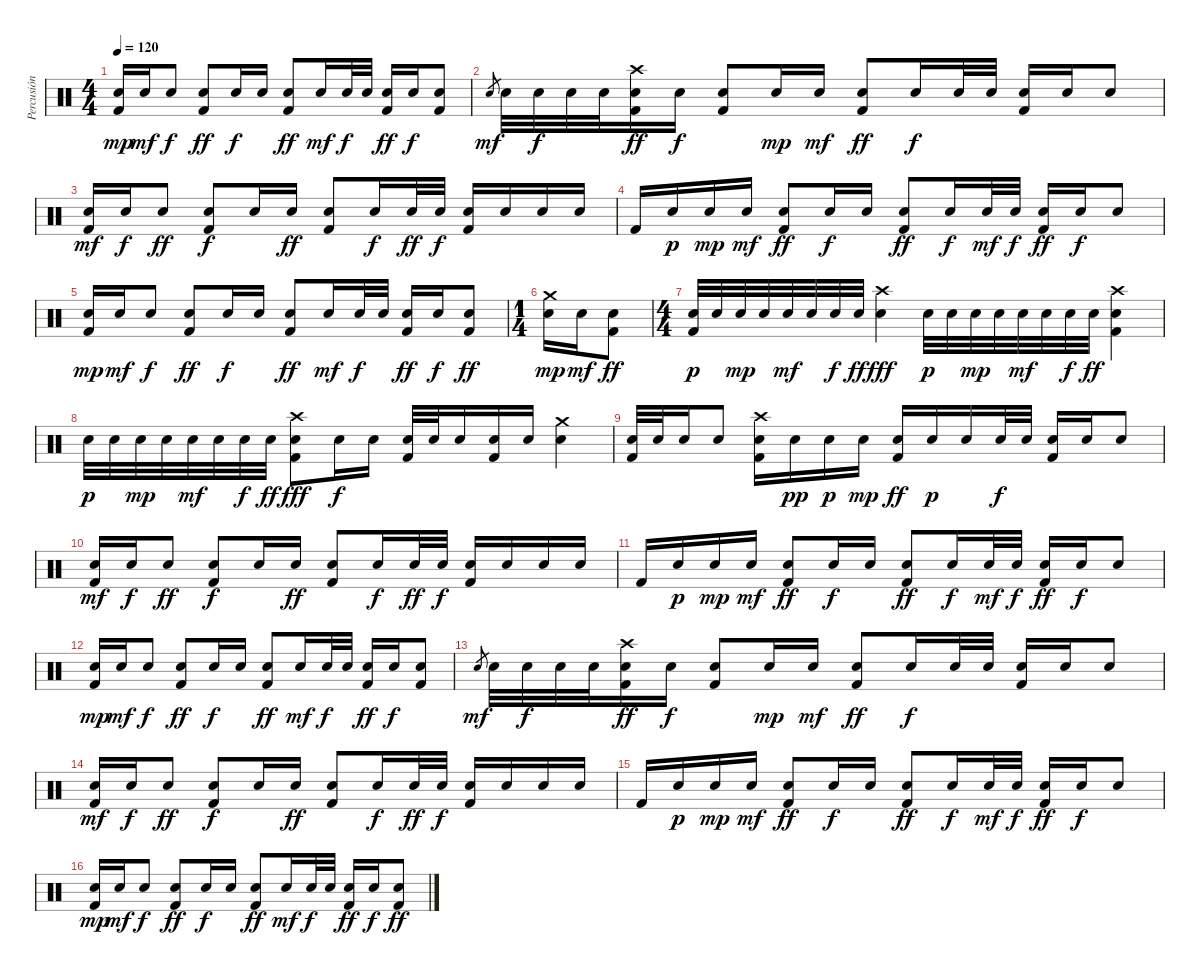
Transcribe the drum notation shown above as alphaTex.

\track ("Percusión" "Percusión") {instrument percussion}
\staff {score}
\articulation defaults
\ts (4 4)
\tempo 120
\clef neutral
\ks c
("Electric Snare (hit)" "Kick (hit) 2").16{dy mp} "Electric Snare (hit)".16{dy mf} "Electric Snare (hit)".8{dy f} ("Electric Snare (hit)" "Kick (hit) 2").8{dy ff} "Electric Snare (hit)".16{dy f} "Electric Snare (hit)".16 ("Electric Snare (hit)" "Kick (hit) 2").8{dy ff} "Electric Snare (hit)".16{dy mf} "Electric Snare (hit)".32{dy f} "Electric Snare (hit)".32 ("Electric Snare (hit)" "Kick (hit) 2").16{dy ff} "Electric Snare (hit)".16{dy f} ("Electric Snare (hit)" "Kick (hit) 2").8 |
"Electric Snare (hit)".8{gr dy mf} "Electric Snare (hit)".32 "Electric Snare (hit)".32{dy f} "Electric Snare (hit)".32 "Electric Snare (hit)".32 ("Crash high (hit)" "Electric Snare (hit)" "Kick (hit) 2").16{dy ff} "Electric Snare (hit)".16{dy f} ("Electric Snare (hit)" "Kick (hit) 2").8 "Electric Snare (hit)".16{dy mp} "Electric Snare (hit)".16{dy mf} ("Electric Snare (hit)" "Kick (hit) 2").8{dy ff} "Electric Snare (hit)".16{dy f} "Electric Snare (hit)".32 "Electric Snare (hit)".32 ("Electric Snare (hit)" "Kick (hit) 2").16 "Electric Snare (hit)".16 "Electric Snare (hit)".8 |
("Electric Snare (hit)" "Kick (hit) 2").16{dy mf} "Electric Snare (hit)".16{dy f} "Electric Snare (hit)".8{dy ff} ("Electric Snare (hit)" "Kick (hit) 2").8{dy f} "Electric Snare (hit)".16 "Electric Snare (hit)".16{dy ff} ("Electric Snare (hit)" "Kick (hit) 2").8 "Electric Snare (hit)".16{dy f} "Electric Snare (hit)".32{dy ff} "Electric Snare (hit)".32{dy f} ("Electric Snare (hit)" "Kick (hit) 2").16 "Electric Snare (hit)".16 "Electric Snare (hit)".16 "Electric Snare (hit)".16 |
"Kick (hit) 2".16 "Electric Snare (hit)".16{dy p} "Electric Snare (hit)".16{dy mp} "Electric Snare (hit)".16{dy mf} ("Electric Snare (hit)" "Kick (hit) 2").8{dy ff} "Electric Snare (hit)".16{dy f} "Electric Snare (hit)".16 ("Electric Snare (hit)" "Kick (hit) 2").8{dy ff} "Electric Snare (hit)".16{dy f} "Electric Snare (hit)".32{dy mf} "Electric Snare (hit)".32{dy f} ("Electric Snare (hit)" "Kick (hit) 2").16{dy ff} "Electric Snare (hit)".16{dy f} "Electric Snare (hit)".8 |
("Electric Snare (hit)" "Kick (hit) 2").16{dy mp} "Electric Snare (hit)".16{dy mf} "Electric Snare (hit)".8{dy f} ("Electric Snare (hit)" "Kick (hit) 2").8{dy ff} "Electric Snare (hit)".16{dy f} "Electric Snare (hit)".16 ("Electric Snare (hit)" "Kick (hit) 2").8{dy ff} "Electric Snare (hit)".16{dy mf} "Electric Snare (hit)".32{dy f} "Electric Snare (hit)".32 ("Electric Snare (hit)" "Kick (hit) 2").16{dy ff} "Electric Snare (hit)".16{dy f} ("Electric Snare (hit)" "Kick (hit) 2").8{dy ff} |
\ts (1 4)
("Crash medium (hit)" "Electric Snare (hit)").16{dy mp} "Electric Snare (hit)".16{dy mf} ("Electric Snare (hit)" "Kick (hit) 2").8{dy ff} |
\ts (4 4)
("Electric Snare (hit)" "Kick (hit) 2").32{dy p volume 8} "Electric Snare (hit)".32 "Electric Snare (hit)".32{dy mp} "Electric Snare (hit)".32 "Electric Snare (hit)".32{dy mf} "Electric Snare (hit)".32 "Electric Snare (hit)".32{dy f} "Electric Snare (hit)".32{dy ff} ("Crash high (hit)" "Electric Snare (hit)").4{dy fff} "Electric Snare (hit)".32{dy p} "Electric Snare (hit)".32 "Electric Snare (hit)".32{dy mp} "Electric Snare (hit)".32 "Electric Snare (hit)".32{dy mf} "Electric Snare (hit)".32 "Electric Snare (hit)".32{dy f} "Electric Snare (hit)".32{dy ff} ("Crash high (hit)" "Electric Snare (hit)" "Kick (hit) 2").4 |
"Electric Snare (hit)".32{dy p} "Electric Snare (hit)".32 "Electric Snare (hit)".32{dy mp} "Electric Snare (hit)".32 "Electric Snare (hit)".32{dy mf} "Electric Snare (hit)".32 "Electric Snare (hit)".32{dy f} "Electric Snare (hit)".32{dy ff} ("Crash high (hit)" "Electric Snare (hit)" "Kick (hit) 2").8{dy fff} "Electric Snare (hit)".16{dy f} "Electric Snare (hit)".16 ("Electric Snare (hit)" "Kick (hit) 2").32 "Electric Snare (hit)".32 "Electric Snare (hit)".16 ("Electric Snare (hit)" "Kick (hit) 2").16 "Electric Snare (hit)".16 ("Crash medium (hit)" "Electric Snare (hit)").4 |
("Electric Snare (hit)" "Kick (hit) 2").32 "Electric Snare (hit)".32 "Electric Snare (hit)".16 "Electric Snare (hit)".8 ("Crash high (hit)" "Electric Snare (hit)" "Kick (hit) 2").16 "Electric Snare (hit)".16{dy pp} "Electric Snare (hit)".16{dy p} "Electric Snare (hit)".16{dy mp} ("Electric Snare (hit)" "Kick (hit) 2").16{dy ff} "Electric Snare (hit)".16{dy p} "Electric Snare (hit)".16 "Electric Snare (hit)".32{dy f} "Electric Snare (hit)".32 ("Electric Snare (hit)" "Kick (hit) 2").16 "Electric Snare (hit)".16 "Electric Snare (hit)".8 |
("Electric Snare (hit)" "Kick (hit) 2").16{dy mf} "Electric Snare (hit)".16{dy f} "Electric Snare (hit)".8{dy ff} ("Electric Snare (hit)" "Kick (hit) 2").8{dy f} "Electric Snare (hit)".16 "Electric Snare (hit)".16{dy ff} ("Electric Snare (hit)" "Kick (hit) 2").8 "Electric Snare (hit)".16{dy f} "Electric Snare (hit)".32{dy ff} "Electric Snare (hit)".32{dy f} ("Electric Snare (hit)" "Kick (hit) 2").16 "Electric Snare (hit)".16 "Electric Snare (hit)".16 "Electric Snare (hit)".16 |
"Kick (hit) 2".16{volume 0} "Electric Snare (hit)".16{dy p} "Electric Snare (hit)".16{dy mp} "Electric Snare (hit)".16{dy mf} ("Electric Snare (hit)" "Kick (hit) 2").8{dy ff} "Electric Snare (hit)".16{dy f} "Electric Snare (hit)".16 ("Electric Snare (hit)" "Kick (hit) 2").8{dy ff} "Electric Snare (hit)".16{dy f} "Electric Snare (hit)".32{dy mf} "Electric Snare (hit)".32{dy f} ("Electric Snare (hit)" "Kick (hit) 2").16{dy ff} "Electric Snare (hit)".16{dy f} "Electric Snare (hit)".8 |
("Electric Snare (hit)" "Kick (hit) 2").16{dy mp} "Electric Snare (hit)".16{dy mf} "Electric Snare (hit)".8{dy f} ("Electric Snare (hit)" "Kick (hit) 2").8{dy ff} "Electric Snare (hit)".16{dy f} "Electric Snare (hit)".16 ("Electric Snare (hit)" "Kick (hit) 2").8{dy ff} "Electric Snare (hit)".16{dy mf} "Electric Snare (hit)".32{dy f} "Electric Snare (hit)".32 ("Electric Snare (hit)" "Kick (hit) 2").16{dy ff} "Electric Snare (hit)".16{dy f} ("Electric Snare (hit)" "Kick (hit) 2").8 |
"Electric Snare (hit)".8{gr dy mf} "Electric Snare (hit)".32 "Electric Snare (hit)".32{dy f} "Electric Snare (hit)".32 "Electric Snare (hit)".32 ("Crash high (hit)" "Electric Snare (hit)" "Kick (hit) 2").16{dy ff} "Electric Snare (hit)".16{dy f} ("Electric Snare (hit)" "Kick (hit) 2").8 "Electric Snare (hit)".16{dy mp} "Electric Snare (hit)".16{dy mf} ("Electric Snare (hit)" "Kick (hit) 2").8{dy ff} "Electric Snare (hit)".16{dy f} "Electric Snare (hit)".32 "Electric Snare (hit)".32 ("Electric Snare (hit)" "Kick (hit) 2").16 "Electric Snare (hit)".16 "Electric Snare (hit)".8 |
("Electric Snare (hit)" "Kick (hit) 2").16{dy mf} "Electric Snare (hit)".16{dy f} "Electric Snare (hit)".8{dy ff} ("Electric Snare (hit)" "Kick (hit) 2").8{dy f} "Electric Snare (hit)".16 "Electric Snare (hit)".16{dy ff} ("Electric Snare (hit)" "Kick (hit) 2").8 "Electric Snare (hit)".16{dy f} "Electric Snare (hit)".32{dy ff} "Electric Snare (hit)".32{dy f} ("Electric Snare (hit)" "Kick (hit) 2").16 "Electric Snare (hit)".16 "Electric Snare (hit)".16 "Electric Snare (hit)".16 |
"Kick (hit) 2".16 "Electric Snare (hit)".16{dy p} "Electric Snare (hit)".16{dy mp} "Electric Snare (hit)".16{dy mf} ("Electric Snare (hit)" "Kick (hit) 2").8{dy ff} "Electric Snare (hit)".16{dy f} "Electric Snare (hit)".16 ("Electric Snare (hit)" "Kick (hit) 2").8{dy ff} "Electric Snare (hit)".16{dy f} "Electric Snare (hit)".32{dy mf} "Electric Snare (hit)".32{dy f} ("Electric Snare (hit)" "Kick (hit) 2").16{dy ff} "Electric Snare (hit)".16{dy f} "Electric Snare (hit)".8 |
("Electric Snare (hit)" "Kick (hit) 2").16{dy mp} "Electric Snare (hit)".16{dy mf} "Electric Snare (hit)".8{dy f} ("Electric Snare (hit)" "Kick (hit) 2").8{dy ff} "Electric Snare (hit)".16{dy f} "Electric Snare (hit)".16 ("Electric Snare (hit)" "Kick (hit) 2").8{dy ff} "Electric Snare (hit)".16{dy mf} "Electric Snare (hit)".32{dy f} "Electric Snare (hit)".32 ("Electric Snare (hit)" "Kick (hit) 2").16{dy ff} "Electric Snare (hit)".16{dy f} ("Electric Snare (hit)" "Kick (hit) 2").8{dy ff}
